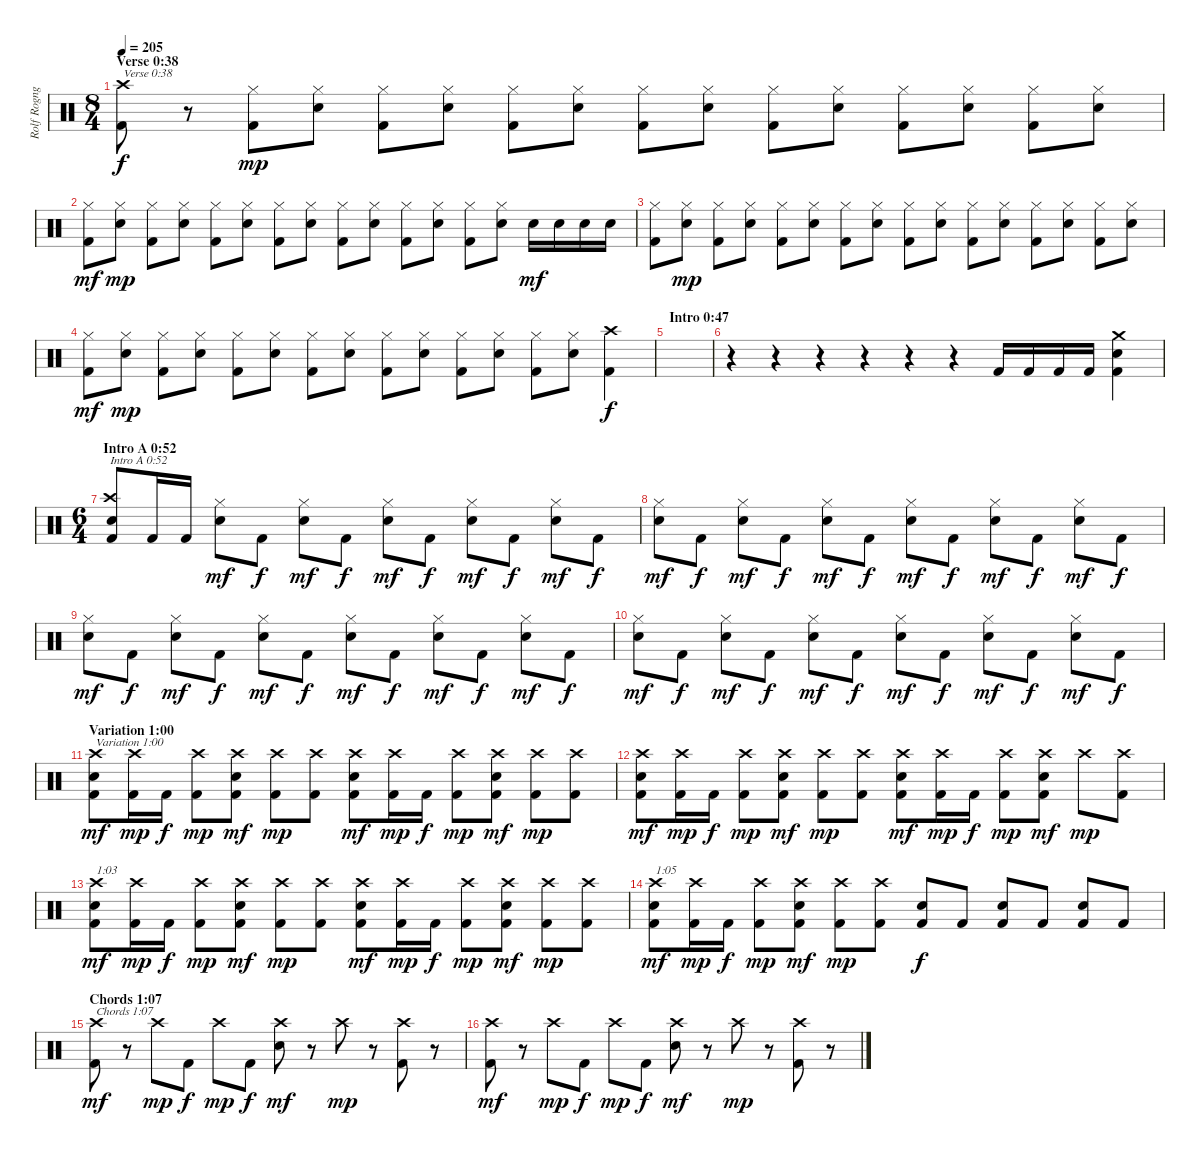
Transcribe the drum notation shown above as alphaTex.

\track ("Rolf Rognguf Hansen" "Rolf Rogng") {instrument percussion}
\staff {score}
\articulation defaults
\ts (8 4)
\section ("" "Verse 0:38")
\tempo 205
\clef neutral
\ks c
("Kick (hit) 2" "Crash high (hit)").8{txt "Verse 0:38" dy f} r.8 ("Kick (hit) 2" "Hi-Hat (closed)").8{dy mp} ("Electric Snare (hit)" "Hi-Hat (closed)").8 ("Kick (hit) 2" "Hi-Hat (closed)").8 ("Electric Snare (hit)" "Hi-Hat (closed)").8 ("Kick (hit) 2" "Hi-Hat (closed)").8 ("Electric Snare (hit)" "Hi-Hat (closed)").8 ("Kick (hit) 2" "Hi-Hat (closed)").8 ("Electric Snare (hit)" "Hi-Hat (closed)").8 ("Kick (hit) 2" "Hi-Hat (closed)").8 ("Electric Snare (hit)" "Hi-Hat (closed)").8 ("Kick (hit) 2" "Hi-Hat (closed)").8 ("Electric Snare (hit)" "Hi-Hat (closed)").8 ("Kick (hit) 2" "Hi-Hat (closed)").8 ("Electric Snare (hit)" "Hi-Hat (closed)").8 |
("Kick (hit) 2" "Hi-Hat (closed)").8{dy mf} ("Electric Snare (hit)" "Hi-Hat (closed)").8{dy mp} ("Kick (hit) 2" "Hi-Hat (closed)").8 ("Electric Snare (hit)" "Hi-Hat (closed)").8 ("Kick (hit) 2" "Hi-Hat (closed)").8 ("Electric Snare (hit)" "Hi-Hat (closed)").8 ("Kick (hit) 2" "Hi-Hat (closed)").8 ("Electric Snare (hit)" "Hi-Hat (closed)").8 ("Kick (hit) 2" "Hi-Hat (closed)").8 ("Electric Snare (hit)" "Hi-Hat (closed)").8 ("Kick (hit) 2" "Hi-Hat (closed)").8 ("Electric Snare (hit)" "Hi-Hat (closed)").8 ("Kick (hit) 2" "Hi-Hat (closed)").8 ("Electric Snare (hit)" "Hi-Hat (closed)").8 "Electric Snare (hit)".16{dy mf} "Electric Snare (hit)".16 "Electric Snare (hit)".16 "Electric Snare (hit)".16 |
("Kick (hit) 2" "Hi-Hat (closed)").8 ("Electric Snare (hit)" "Hi-Hat (closed)").8{dy mp} ("Kick (hit) 2" "Hi-Hat (closed)").8 ("Electric Snare (hit)" "Hi-Hat (closed)").8 ("Kick (hit) 2" "Hi-Hat (closed)").8 ("Electric Snare (hit)" "Hi-Hat (closed)").8 ("Kick (hit) 2" "Hi-Hat (closed)").8 ("Electric Snare (hit)" "Hi-Hat (closed)").8 ("Kick (hit) 2" "Hi-Hat (closed)").8 ("Electric Snare (hit)" "Hi-Hat (closed)").8 ("Kick (hit) 2" "Hi-Hat (closed)").8 ("Electric Snare (hit)" "Hi-Hat (closed)").8 ("Kick (hit) 2" "Hi-Hat (closed)").8 ("Electric Snare (hit)" "Hi-Hat (closed)").8 ("Kick (hit) 2" "Hi-Hat (closed)").8 ("Electric Snare (hit)" "Hi-Hat (closed)").8 |
("Kick (hit) 2" "Hi-Hat (closed)").8{dy mf} ("Electric Snare (hit)" "Hi-Hat (closed)").8{dy mp} ("Kick (hit) 2" "Hi-Hat (closed)").8 ("Electric Snare (hit)" "Hi-Hat (closed)").8 ("Kick (hit) 2" "Hi-Hat (closed)").8 ("Electric Snare (hit)" "Hi-Hat (closed)").8 ("Kick (hit) 2" "Hi-Hat (closed)").8 ("Electric Snare (hit)" "Hi-Hat (closed)").8 ("Kick (hit) 2" "Hi-Hat (closed)").8 ("Electric Snare (hit)" "Hi-Hat (closed)").8 ("Kick (hit) 2" "Hi-Hat (closed)").8 ("Electric Snare (hit)" "Hi-Hat (closed)").8 ("Kick (hit) 2" "Hi-Hat (closed)").8 ("Electric Snare (hit)" "Hi-Hat (closed)").8 ("Kick (hit) 2" "Crash high (hit)").4{dy f} |
\section ("" "Intro 0:47")
|
r.4 r.4 r.4 r.4 r.4 r.4 "Kick (hit) 2".16 "Kick (hit) 2".16 "Kick (hit) 2".16 "Kick (hit) 2".16 ("Kick (hit) 2" "Electric Snare (hit)" "Crash medium (hit)").4 |
\ts (6 4)
\section ("" "Intro A 0:52")
("Kick (hit) 2" "Electric Snare (hit)" "Crash high (hit)").8{txt "Intro A 0:52"} "Kick (hit) 2".16 "Kick (hit) 2".16 ("Electric Snare (hit)" "Hi-Hat (closed)").8{dy mf} "Kick (hit) 2".8{dy f} ("Electric Snare (hit)" "Hi-Hat (closed)").8{dy mf} "Kick (hit) 2".8{dy f} ("Electric Snare (hit)" "Hi-Hat (closed)").8{dy mf} "Kick (hit) 2".8{dy f} ("Electric Snare (hit)" "Hi-Hat (closed)").8{dy mf} "Kick (hit) 2".8{dy f} ("Electric Snare (hit)" "Hi-Hat (closed)").8{dy mf} "Kick (hit) 2".8{dy f} |
("Electric Snare (hit)" "Hi-Hat (closed)").8{dy mf} "Kick (hit) 2".8{dy f} ("Electric Snare (hit)" "Hi-Hat (closed)").8{dy mf} "Kick (hit) 2".8{dy f} ("Electric Snare (hit)" "Hi-Hat (closed)").8{dy mf} "Kick (hit) 2".8{dy f} ("Electric Snare (hit)" "Hi-Hat (closed)").8{dy mf} "Kick (hit) 2".8{dy f} ("Electric Snare (hit)" "Hi-Hat (closed)").8{dy mf} "Kick (hit) 2".8{dy f} ("Electric Snare (hit)" "Hi-Hat (closed)").8{dy mf} "Kick (hit) 2".8{dy f} |
("Electric Snare (hit)" "Hi-Hat (closed)").8{dy mf} "Kick (hit) 2".8{dy f} ("Electric Snare (hit)" "Hi-Hat (closed)").8{dy mf} "Kick (hit) 2".8{dy f} ("Electric Snare (hit)" "Hi-Hat (closed)").8{dy mf} "Kick (hit) 2".8{dy f} ("Electric Snare (hit)" "Hi-Hat (closed)").8{dy mf} "Kick (hit) 2".8{dy f} ("Electric Snare (hit)" "Hi-Hat (closed)").8{dy mf} "Kick (hit) 2".8{dy f} ("Electric Snare (hit)" "Hi-Hat (closed)").8{dy mf} "Kick (hit) 2".8{dy f} |
("Electric Snare (hit)" "Hi-Hat (closed)").8{dy mf} "Kick (hit) 2".8{dy f} ("Electric Snare (hit)" "Hi-Hat (closed)").8{dy mf} "Kick (hit) 2".8{dy f} ("Electric Snare (hit)" "Hi-Hat (closed)").8{dy mf} "Kick (hit) 2".8{dy f} ("Electric Snare (hit)" "Hi-Hat (closed)").8{dy mf} "Kick (hit) 2".8{dy f} ("Electric Snare (hit)" "Hi-Hat (closed)").8{dy mf} "Kick (hit) 2".8{dy f} ("Electric Snare (hit)" "Hi-Hat (closed)").8{dy mf} "Kick (hit) 2".8{dy f} |
\section ("" "Variation 1:00")
("Kick (hit) 2" "Electric Snare (hit)" "Crash high (hit)").8{txt "Variation 1:00" dy mf} ("Kick (hit) 2" "Crash high (hit)").16{dy mp} "Kick (hit) 2".16{dy f} ("Kick (hit) 2" "Crash high (hit)").8{dy mp} ("Kick (hit) 2" "Electric Snare (hit)" "Crash high (hit)").8{dy mf} ("Kick (hit) 2" "Crash high (hit)").8{dy mp} ("Kick (hit) 2" "Crash high (hit)").8 ("Kick (hit) 2" "Electric Snare (hit)" "Crash high (hit)").8{dy mf} ("Kick (hit) 2" "Crash high (hit)").16{dy mp} "Kick (hit) 2".16{dy f} ("Kick (hit) 2" "Crash high (hit)").8{dy mp} ("Kick (hit) 2" "Electric Snare (hit)" "Crash high (hit)").8{dy mf} ("Kick (hit) 2" "Crash high (hit)").8{dy mp} ("Kick (hit) 2" "Crash high (hit)").8 |
("Kick (hit) 2" "Electric Snare (hit)" "Crash high (hit)").8{dy mf} ("Kick (hit) 2" "Crash high (hit)").16{dy mp} "Kick (hit) 2".16{dy f} ("Kick (hit) 2" "Crash high (hit)").8{dy mp} ("Kick (hit) 2" "Electric Snare (hit)" "Crash high (hit)").8{dy mf} ("Kick (hit) 2" "Crash high (hit)").8{dy mp} ("Kick (hit) 2" "Crash high (hit)").8 ("Kick (hit) 2" "Electric Snare (hit)" "Crash high (hit)").8{dy mf} ("Kick (hit) 2" "Crash high (hit)").16{dy mp} "Kick (hit) 2".16{dy f} ("Kick (hit) 2" "Crash high (hit)").8{dy mp} ("Kick (hit) 2" "Electric Snare (hit)" "Crash high (hit)").8{dy mf} "Crash high (hit)".8{dy mp} ("Kick (hit) 2" "Crash high (hit)").8 |
("Kick (hit) 2" "Electric Snare (hit)" "Crash high (hit)").8{txt "1:03" dy mf} ("Kick (hit) 2" "Crash high (hit)").16{dy mp} "Kick (hit) 2".16{dy f} ("Kick (hit) 2" "Crash high (hit)").8{dy mp} ("Kick (hit) 2" "Electric Snare (hit)" "Crash high (hit)").8{dy mf} ("Kick (hit) 2" "Crash high (hit)").8{dy mp} ("Kick (hit) 2" "Crash high (hit)").8 ("Kick (hit) 2" "Electric Snare (hit)" "Crash high (hit)").8{dy mf} ("Kick (hit) 2" "Crash high (hit)").16{dy mp} "Kick (hit) 2".16{dy f} ("Kick (hit) 2" "Crash high (hit)").8{dy mp} ("Kick (hit) 2" "Electric Snare (hit)" "Crash high (hit)").8{dy mf} ("Kick (hit) 2" "Crash high (hit)").8{dy mp} ("Kick (hit) 2" "Crash high (hit)").8 |
("Kick (hit) 2" "Electric Snare (hit)" "Crash high (hit)").8{txt "1:05" dy mf} ("Kick (hit) 2" "Crash high (hit)").16{dy mp} "Kick (hit) 2".16{dy f} ("Kick (hit) 2" "Crash high (hit)").8{dy mp} ("Kick (hit) 2" "Electric Snare (hit)" "Crash high (hit)").8{dy mf} ("Kick (hit) 2" "Crash high (hit)").8{dy mp} ("Kick (hit) 2" "Crash high (hit)").8 ("Kick (hit) 2" "Electric Snare (hit)").8{dy f} "Kick (hit) 2".8 ("Kick (hit) 2" "Electric Snare (hit)").8 "Kick (hit) 2".8 ("Kick (hit) 2" "Electric Snare (hit)").8 "Kick (hit) 2".8 |
\section ("" "Chords 1:07")
("Kick (hit) 2" "Crash high (hit)").8{txt "Chords 1:07" dy mf} r.8 "Crash high (hit)".8{dy mp} "Kick (hit) 2".8{dy f} "Crash high (hit)".8{dy mp} "Kick (hit) 2".8{dy f} ("Electric Snare (hit)" "Crash high (hit)").8{dy mf} r.8 "Crash high (hit)".8{dy mp} r.8 ("Kick (hit) 2" "Crash high (hit)").8 r.8 |
("Kick (hit) 2" "Crash high (hit)").8{dy mf} r.8 "Crash high (hit)".8{dy mp} "Kick (hit) 2".8{dy f} "Crash high (hit)".8{dy mp} "Kick (hit) 2".8{dy f} ("Electric Snare (hit)" "Crash high (hit)").8{dy mf} r.8 "Crash high (hit)".8{dy mp} r.8 ("Kick (hit) 2" "Crash high (hit)").8 r.8
